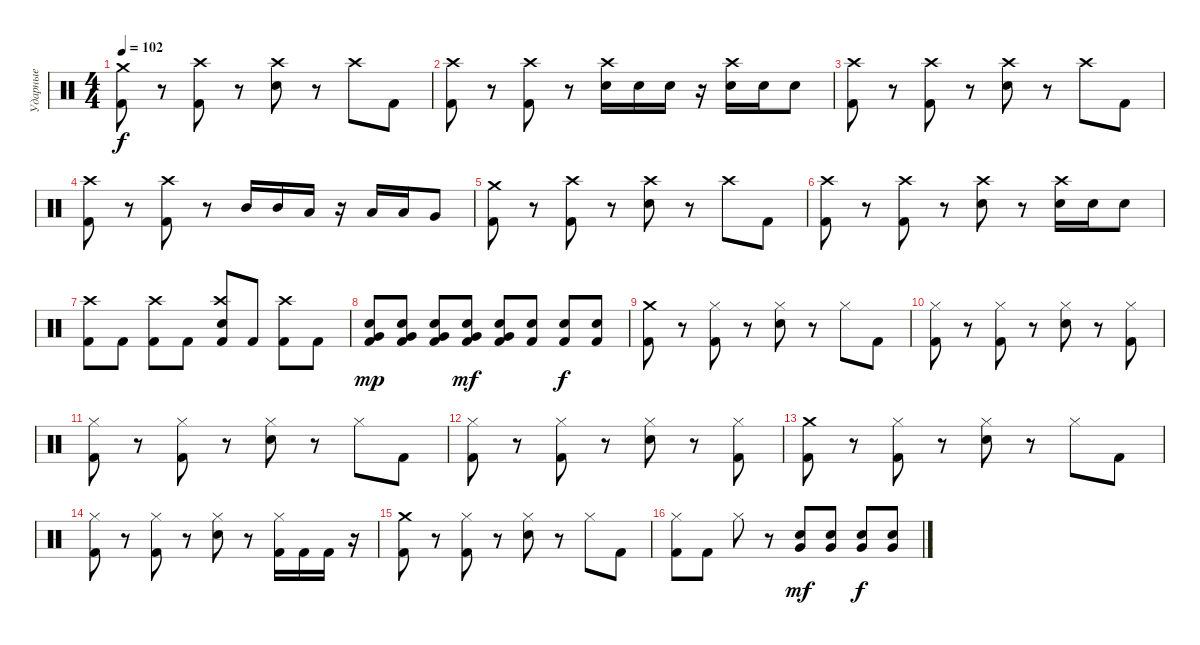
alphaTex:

\track ("Ударные" "Ударные") {instrument percussion}
\staff {score}
\articulation defaults
\ts (4 4)
\tempo 102
\clef neutral
\ks c
("Crash medium (hit)" "Kick (hit) 2").8{dy f} r.8 ("Crash high (hit)" "Kick (hit) 2").8 r.8 ("Crash high (hit)" "Electric Snare (hit)").8 r.8 "Crash high (hit)".8 "Kick (hit) 2".8 |
("Crash high (hit)" "Kick (hit) 2").8 r.8 ("Crash high (hit)" "Kick (hit) 2").8 r.8 ("Crash high (hit)" "Electric Snare (hit)").16 "Electric Snare (hit)".16 "Electric Snare (hit)".16 r.16 ("Crash high (hit)" "Electric Snare (hit)").16 "Electric Snare (hit)".16 "Electric Snare (hit)".8 |
("Crash high (hit)" "Kick (hit) 2").8 r.8 ("Crash high (hit)" "Kick (hit) 2").8 r.8 ("Crash high (hit)" "Electric Snare (hit)").8 r.8 "Crash high (hit)".8 "Kick (hit) 2".8 |
("Crash high (hit)" "Kick (hit) 2").8 r.8 ("Crash high (hit)" "Kick (hit) 2").8 r.8 "Mid Tom (hit)".16 "Mid Tom (hit)".16 "Low Tom (hit)".16 r.16 "Low Tom (hit)".16 "Low Tom (hit)".16 "Very Low Tom (hit)".8 |
("Crash medium (hit)" "Kick (hit) 2").8 r.8 ("Crash high (hit)" "Kick (hit) 2").8 r.8 ("Crash high (hit)" "Electric Snare (hit)").8 r.8 "Crash high (hit)".8 "Kick (hit) 2".8 |
("Crash high (hit)" "Kick (hit) 2").8 r.8 ("Crash high (hit)" "Kick (hit) 2").8 r.8 ("Crash high (hit)" "Electric Snare (hit)").8 r.8 ("Crash high (hit)" "Electric Snare (hit)").16 "Electric Snare (hit)".16 "Electric Snare (hit)".8 |
("Crash high (hit)" "Kick (hit) 2").8 "Kick (hit) 2".8 ("Crash high (hit)" "Kick (hit) 2").8 "Kick (hit) 2".8 ("Crash high (hit)" "Electric Snare (hit)" "Kick (hit) 2").8 "Kick (hit) 2".8 ("Crash high (hit)" "Kick (hit) 2").8 "Kick (hit) 2".8 |
("Kick (hit) 2" "Electric Snare (hit)" "Very Low Tom (hit)").8{dy mp} ("Kick (hit) 2" "Electric Snare (hit)" "Very Low Tom (hit)").8 ("Kick (hit) 2" "Electric Snare (hit)" "Very Low Tom (hit)").8 ("Kick (hit) 2" "Electric Snare (hit)" "Very Low Tom (hit)").8{dy mf} ("Kick (hit) 2" "Electric Snare (hit)" "Very Low Tom (hit)").8 ("Kick (hit) 2" "Electric Snare (hit)").8 ("Kick (hit) 2" "Electric Snare (hit)").8{dy f} ("Kick (hit) 2" "Electric Snare (hit)").8 |
("Crash medium (hit)" "Kick (hit) 2").8 r.8 ("Hi-Hat (closed)" "Kick (hit) 2").8 r.8 ("Hi-Hat (closed)" "Electric Snare (hit)").8 r.8 "Hi-Hat (closed)".8 "Kick (hit) 2".8 |
("Hi-Hat (closed)" "Kick (hit) 2").8 r.8 ("Hi-Hat (closed)" "Kick (hit) 2").8 r.8 ("Hi-Hat (closed)" "Electric Snare (hit)").8 r.8 ("Hi-Hat (closed)" "Kick (hit) 2").8 |
("Hi-Hat (closed)" "Kick (hit) 2").8 r.8 ("Hi-Hat (closed)" "Kick (hit) 2").8 r.8 ("Hi-Hat (closed)" "Electric Snare (hit)").8 r.8 "Hi-Hat (closed)".8 "Kick (hit) 2".8 |
("Hi-Hat (closed)" "Kick (hit) 2").8 r.8 ("Hi-Hat (closed)" "Kick (hit) 2").8 r.8 ("Hi-Hat (closed)" "Electric Snare (hit)").8 r.8 ("Hi-Hat (closed)" "Kick (hit) 2").8 |
("Crash medium (hit)" "Kick (hit) 2").8 r.8 ("Hi-Hat (closed)" "Kick (hit) 2").8 r.8 ("Hi-Hat (closed)" "Electric Snare (hit)").8 r.8 "Hi-Hat (closed)".8 "Kick (hit) 2".8 |
("Hi-Hat (closed)" "Kick (hit) 2").8 r.8 ("Hi-Hat (closed)" "Kick (hit) 2").8 r.8 ("Hi-Hat (closed)" "Electric Snare (hit)").8 r.8 ("Hi-Hat (closed)" "Kick (hit) 2").16 "Kick (hit) 2".16 "Kick (hit) 2".16 r.16 |
("Crash medium (hit)" "Kick (hit) 2").8 r.8 ("Hi-Hat (closed)" "Kick (hit) 2").8 r.8 ("Hi-Hat (closed)" "Electric Snare (hit)").8 r.8 "Hi-Hat (closed)".8 "Kick (hit) 2".8 |
("Hi-Hat (closed)" "Kick (hit) 2").8 "Kick (hit) 2".8 "Hi-Hat (closed)".8 r.8 ("Electric Snare (hit)" "Very Low Tom (hit)").8{dy mf} ("Electric Snare (hit)" "Very Low Tom (hit)").8 ("Electric Snare (hit)" "Very Low Tom (hit)").8{dy f} ("Electric Snare (hit)" "Very Low Tom (hit)").8
